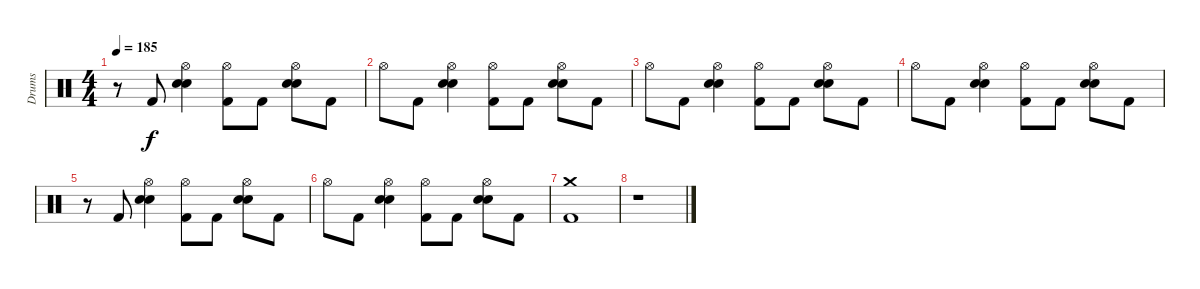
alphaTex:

\track ("Drums" "Drums") {instrument percussion}
\staff {score}
\articulation defaults
\ts (4 4)
\tempo 185
\clef neutral
\ks c
r.8{dy f} "Kick (hit) 2".8 ("Hi-Hat (open)" "Electric Snare (hit)" "Snare (hit) 2").4 ("Hi-Hat (open)" "Kick (hit) 2").8 "Kick (hit) 2".8 ("Hi-Hat (open)" "Electric Snare (hit)" "Snare (hit) 2").8 "Kick (hit) 2".8 |
"Hi-Hat (open)".8 "Kick (hit) 2".8 ("Hi-Hat (open)" "Electric Snare (hit)" "Snare (hit) 2").4 ("Hi-Hat (open)" "Kick (hit) 2").8 "Kick (hit) 2".8 ("Hi-Hat (open)" "Electric Snare (hit)" "Snare (hit) 2").8 "Kick (hit) 2".8 |
"Hi-Hat (open)".8 "Kick (hit) 2".8 ("Hi-Hat (open)" "Electric Snare (hit)" "Snare (hit) 2").4 ("Hi-Hat (open)" "Kick (hit) 2").8 "Kick (hit) 2".8 ("Hi-Hat (open)" "Electric Snare (hit)" "Snare (hit) 2").8 "Kick (hit) 2".8 |
"Hi-Hat (open)".8 "Kick (hit) 2".8 ("Hi-Hat (open)" "Electric Snare (hit)" "Snare (hit) 2").4 ("Hi-Hat (open)" "Kick (hit) 2").8 "Kick (hit) 2".8 ("Hi-Hat (open)" "Electric Snare (hit)" "Snare (hit) 2").8 "Kick (hit) 2".8 |
r.8 "Kick (hit) 2".8 ("Hi-Hat (open)" "Electric Snare (hit)" "Snare (hit) 2").4 ("Hi-Hat (open)" "Kick (hit) 2").8 "Kick (hit) 2".8 ("Hi-Hat (open)" "Electric Snare (hit)" "Snare (hit) 2").8 "Kick (hit) 2".8 |
"Hi-Hat (open)".8 "Kick (hit) 2".8 ("Hi-Hat (open)" "Electric Snare (hit)" "Snare (hit) 2").4 ("Hi-Hat (open)" "Kick (hit) 2").8 "Kick (hit) 2".8 ("Hi-Hat (open)" "Electric Snare (hit)" "Snare (hit) 2").8 "Kick (hit) 2".8 |
("Crash medium (hit)" "Kick (hit) 2").1 |
r.1
